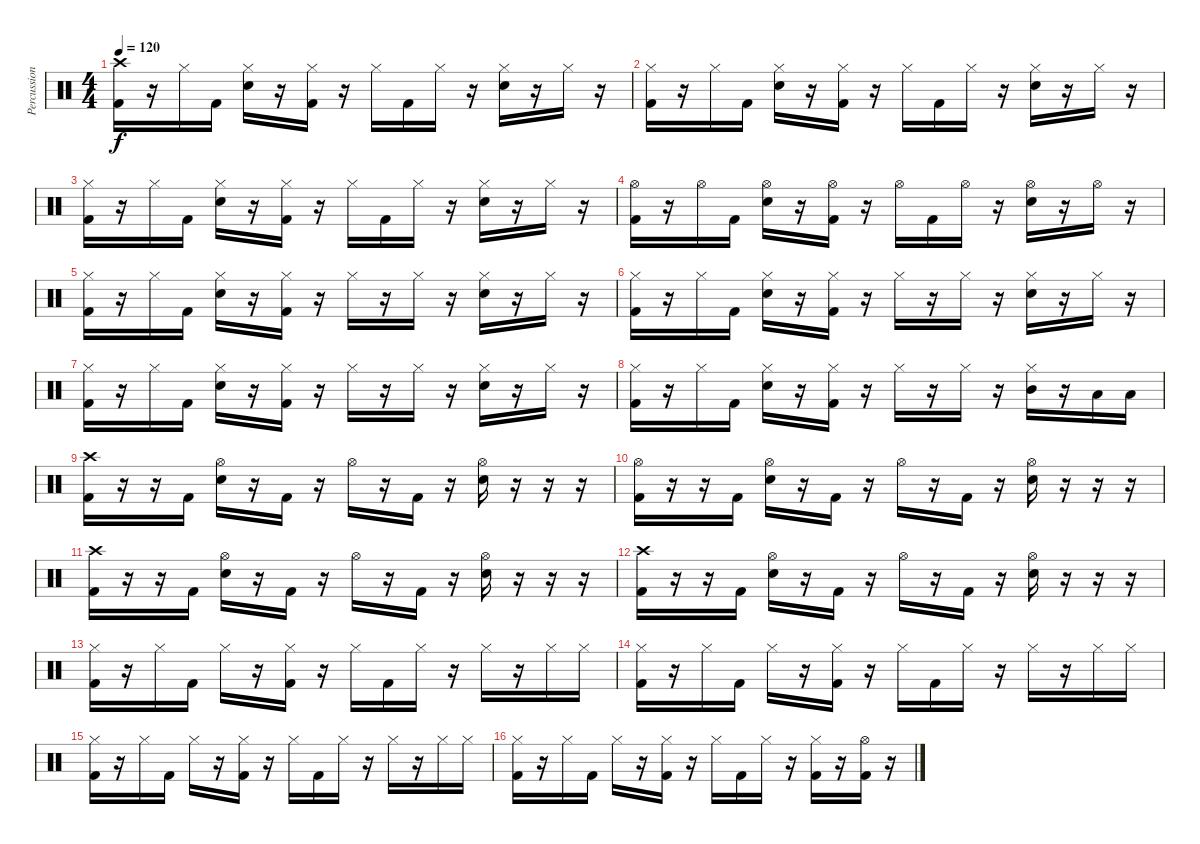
\track ("Percussion" "Percussion") {instrument percussion}
\staff {score}
\articulation defaults
\ts (4 4)
\tempo 120
\clef neutral
\ks c
("Crash high (hit)" "Kick (hit) 2").16{dy f} r.16 "Hi-Hat (closed)".16 "Kick (hit) 2".16 ("Hi-Hat (closed)" "Snare (hit) 2").16 r.16 ("Hi-Hat (closed)" "Kick (hit) 2").16 r.16 "Hi-Hat (closed)".16 "Kick (hit) 2".16 "Hi-Hat (closed)".16 r.16 ("Hi-Hat (closed)" "Snare (hit) 2").16 r.16 "Hi-Hat (closed)".16 r.16 |
("Hi-Hat (closed)" "Kick (hit) 2").16 r.16 "Hi-Hat (closed)".16 "Kick (hit) 2".16 ("Hi-Hat (closed)" "Snare (hit) 2").16 r.16 ("Hi-Hat (closed)" "Kick (hit) 2").16 r.16 "Hi-Hat (closed)".16 "Kick (hit) 2".16 "Hi-Hat (closed)".16 r.16 ("Hi-Hat (closed)" "Snare (hit) 2").16 r.16 "Hi-Hat (closed)".16 r.16 |
("Hi-Hat (closed)" "Kick (hit) 2").16 r.16 "Hi-Hat (closed)".16 "Kick (hit) 2".16 ("Hi-Hat (closed)" "Snare (hit) 2").16 r.16 ("Hi-Hat (closed)" "Kick (hit) 2").16 r.16 "Hi-Hat (closed)".16 "Kick (hit) 2".16 "Hi-Hat (closed)".16 r.16 ("Hi-Hat (closed)" "Snare (hit) 2").16 r.16 "Hi-Hat (closed)".16 r.16 |
("Hi-Hat (open)" "Kick (hit) 2").16 r.16 "Hi-Hat (open)".16 "Kick (hit) 2".16 ("Hi-Hat (open)" "Snare (hit) 2").16 r.16 ("Hi-Hat (open)" "Kick (hit) 2").16 r.16 "Hi-Hat (open)".16 "Kick (hit) 2".16 "Hi-Hat (open)".16 r.16 ("Hi-Hat (open)" "Snare (hit) 2").16 r.16 "Hi-Hat (open)".16 r.16 |
("Hi-Hat (closed)" "Kick (hit) 2").16 r.16 "Hi-Hat (closed)".16 "Kick (hit) 2".16 ("Hi-Hat (closed)" "Snare (hit) 2").16 r.16 ("Hi-Hat (closed)" "Kick (hit) 2").16 r.16 "Hi-Hat (closed)".16 r.16 "Hi-Hat (closed)".16 r.16 ("Hi-Hat (closed)" "Snare (hit) 2").16 r.16 "Hi-Hat (closed)".16 r.16 |
("Hi-Hat (closed)" "Kick (hit) 2").16 r.16 "Hi-Hat (closed)".16 "Kick (hit) 2".16 ("Hi-Hat (closed)" "Snare (hit) 2").16 r.16 ("Hi-Hat (closed)" "Kick (hit) 2").16 r.16 "Hi-Hat (closed)".16 r.16 "Hi-Hat (closed)".16 r.16 ("Hi-Hat (closed)" "Snare (hit) 2").16 r.16 "Hi-Hat (closed)".16 r.16 |
("Hi-Hat (closed)" "Kick (hit) 2").16 r.16 "Hi-Hat (closed)".16 "Kick (hit) 2".16 ("Hi-Hat (closed)" "Snare (hit) 2").16 r.16 ("Hi-Hat (closed)" "Kick (hit) 2").16 r.16 "Hi-Hat (closed)".16 r.16 "Hi-Hat (closed)".16 r.16 ("Hi-Hat (closed)" "Snare (hit) 2").16 r.16 "Hi-Hat (closed)".16 r.16 |
("Hi-Hat (closed)" "Kick (hit) 2").16 r.16 "Hi-Hat (closed)".16 "Kick (hit) 2".16 ("Hi-Hat (closed)" "Snare (hit) 2").16 r.16 ("Hi-Hat (closed)" "Kick (hit) 2").16 r.16 "Hi-Hat (closed)".16 r.16 "Hi-Hat (closed)".16 r.16 ("Hi-Hat (closed)" "Mid Tom (hit)").16 r.16 "Low Floor Tom (hit)".16 "Low Floor Tom (hit)".16 |
("Crash high (hit)" "Kick (hit) 2").16 r.16 r.16 "Kick (hit) 2".16 ("Hi-Hat (open)" "Snare (hit) 2").16 r.16 "Kick (hit) 2".16 r.16 "Hi-Hat (open)".16 r.16 "Kick (hit) 2".16 r.16 ("Hi-Hat (open)" "Snare (hit) 2").16 r.16 r.16 r.16 |
("Hi-Hat (open)" "Kick (hit) 2").16 r.16 r.16 "Kick (hit) 2".16 ("Hi-Hat (open)" "Snare (hit) 2").16 r.16 "Kick (hit) 2".16 r.16 "Hi-Hat (open)".16 r.16 "Kick (hit) 2".16 r.16 ("Hi-Hat (open)" "Snare (hit) 2").16 r.16 r.16 r.16 |
("Crash high (hit)" "Kick (hit) 2").16 r.16 r.16 "Kick (hit) 2".16 ("Hi-Hat (open)" "Snare (hit) 2").16 r.16 "Kick (hit) 2".16 r.16 "Hi-Hat (open)".16 r.16 "Kick (hit) 2".16 r.16 ("Hi-Hat (open)" "Snare (hit) 2").16 r.16 r.16 r.16 |
("Crash high (hit)" "Kick (hit) 2").16 r.16 r.16 "Kick (hit) 2".16 ("Hi-Hat (open)" "Snare (hit) 2").16 r.16 "Kick (hit) 2".16 r.16 "Hi-Hat (open)".16 r.16 "Kick (hit) 2".16 r.16 ("Hi-Hat (open)" "Snare (hit) 2").16 r.16 r.16 r.16 |
("Hi-Hat (closed)" "Kick (hit) 2").16 r.16 "Hi-Hat (closed)".16 "Kick (hit) 2".16 "Hi-Hat (closed)".16 r.16 ("Hi-Hat (closed)" "Kick (hit) 2").16 r.16 "Hi-Hat (closed)".16 "Kick (hit) 2".16 "Hi-Hat (closed)".16 r.16 "Hi-Hat (closed)".16 r.16 "Hi-Hat (closed)".16 "Hi-Hat (closed)".16 |
("Hi-Hat (closed)" "Kick (hit) 2").16 r.16 "Hi-Hat (closed)".16 "Kick (hit) 2".16 "Hi-Hat (closed)".16 r.16 ("Hi-Hat (closed)" "Kick (hit) 2").16 r.16 "Hi-Hat (closed)".16 "Kick (hit) 2".16 "Hi-Hat (closed)".16 r.16 "Hi-Hat (closed)".16 r.16 "Hi-Hat (closed)".16 "Hi-Hat (closed)".16 |
("Hi-Hat (closed)" "Kick (hit) 2").16 r.16 "Hi-Hat (closed)".16 "Kick (hit) 2".16 "Hi-Hat (closed)".16 r.16 ("Hi-Hat (closed)" "Kick (hit) 2").16 r.16 "Hi-Hat (closed)".16 "Kick (hit) 2".16 "Hi-Hat (closed)".16 r.16 "Hi-Hat (closed)".16 r.16 "Hi-Hat (closed)".16 "Hi-Hat (closed)".16 |
("Hi-Hat (closed)" "Kick (hit) 2").16 r.16 "Hi-Hat (closed)".16 "Kick (hit) 2".16 "Hi-Hat (closed)".16 r.16 ("Hi-Hat (closed)" "Kick (hit) 2").16 r.16 "Hi-Hat (closed)".16 "Kick (hit) 2".16 "Hi-Hat (closed)".16 r.16 ("Hi-Hat (closed)" "Kick (hit) 2").16 r.16 ("Hi-Hat (open)" "Kick (hit) 2").16 r.16
